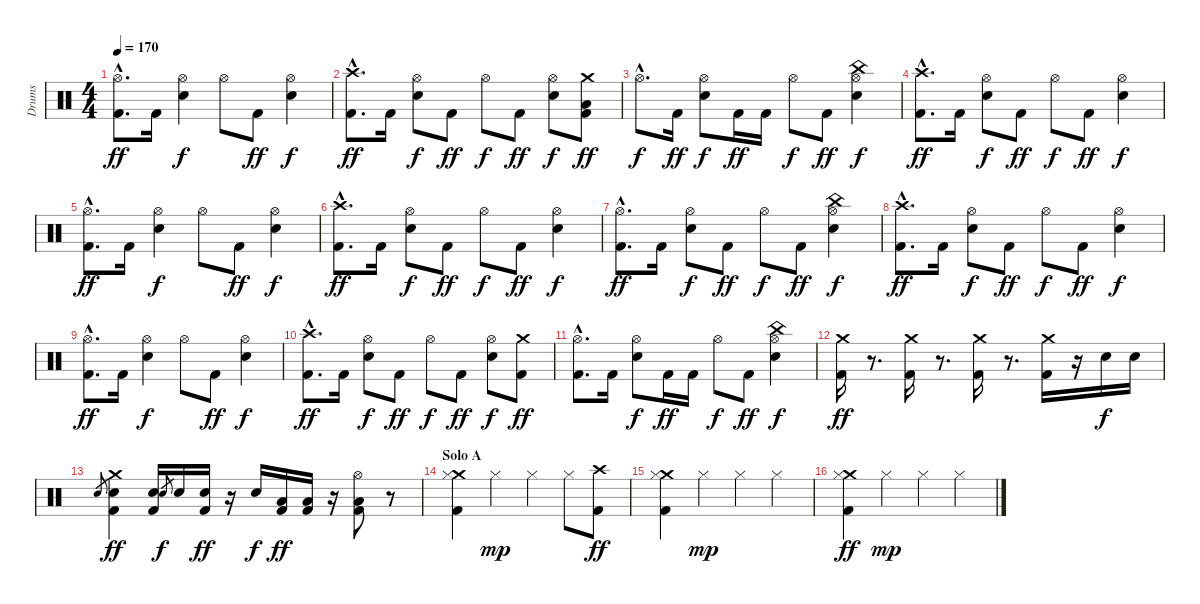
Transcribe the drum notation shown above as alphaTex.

\track ("Drums" "Drums") {instrument percussion}
\staff {score}
\articulation defaults
\ts (4 4)
\tempo 170
\clef neutral
\ks c
("Hi-Hat (open)"{hac} "Kick (hit) 2"{hac}).8{d dy ff} "Kick (hit) 2".16 ("Hi-Hat (open)" "Snare (hit) 2").4{dy f} "Hi-Hat (open)".8 "Kick (hit) 2".8{dy ff} ("Hi-Hat (open)" "Snare (hit) 2").4{dy f} |
("Crash high (hit)"{hac} "Kick (hit) 2"{hac}).8{d dy ff} "Kick (hit) 2".16 ("Hi-Hat (open)" "Snare (hit) 2").8{dy f} "Kick (hit) 2".8{dy ff} "Hi-Hat (open)".8{dy f} "Kick (hit) 2".8{dy ff} ("Hi-Hat (open)" "Snare (hit) 2").8{dy f} ("Crash medium (hit)" "Low Floor Tom (hit)" "Kick (hit) 2").8{dy ff} |
"Hi-Hat (open)"{hac}.8{d dy f} "Kick (hit) 2".16{dy ff} ("Hi-Hat (open)" "Snare (hit) 2").8{dy f} "Kick (hit) 2".16{dy ff} "Kick (hit) 2".16 "Hi-Hat (open)".8{dy f} "Kick (hit) 2".8{dy ff} ("China (hit)" "Hi-Hat (open)" "Snare (hit) 2").4{dy f} |
("Crash high (hit)"{hac} "Kick (hit) 2"{hac}).8{d dy ff} "Kick (hit) 2".16 ("Hi-Hat (open)" "Snare (hit) 2").8{dy f} "Kick (hit) 2".8{dy ff} "Hi-Hat (open)".8{dy f} "Kick (hit) 2".8{dy ff} ("Hi-Hat (open)" "Snare (hit) 2").4{dy f} |
("Hi-Hat (open)"{hac} "Kick (hit) 2"{hac}).8{d dy ff} "Kick (hit) 2".16 ("Hi-Hat (open)" "Snare (hit) 2").4{dy f} "Hi-Hat (open)".8 "Kick (hit) 2".8{dy ff} ("Hi-Hat (open)" "Snare (hit) 2").4{dy f} |
("Crash high (hit)"{hac} "Kick (hit) 2"{hac}).8{d dy ff} "Kick (hit) 2".16 ("Hi-Hat (open)" "Snare (hit) 2").8{dy f} "Kick (hit) 2".8{dy ff} "Hi-Hat (open)".8{dy f} "Kick (hit) 2".8{dy ff} ("Hi-Hat (open)" "Snare (hit) 2").4{dy f} |
("Hi-Hat (open)"{hac} "Kick (hit) 2"{hac}).8{d dy ff} "Kick (hit) 2".16 ("Hi-Hat (open)" "Snare (hit) 2").8{dy f} "Kick (hit) 2".8{dy ff} "Hi-Hat (open)".8{dy f} "Kick (hit) 2".8{dy ff} ("China (hit)" "Hi-Hat (open)" "Snare (hit) 2").4{dy f} |
("Crash high (hit)"{hac} "Kick (hit) 2"{hac}).8{d dy ff} "Kick (hit) 2".16 ("Hi-Hat (open)" "Snare (hit) 2").8{dy f} "Kick (hit) 2".8{dy ff} "Hi-Hat (open)".8{dy f} "Kick (hit) 2".8{dy ff} ("Hi-Hat (open)" "Snare (hit) 2").4{dy f} |
("Hi-Hat (open)"{hac} "Kick (hit) 2"{hac}).8{d dy ff} "Kick (hit) 2".16 ("Hi-Hat (open)" "Snare (hit) 2").4{dy f} "Hi-Hat (open)".8 "Kick (hit) 2".8{dy ff} ("Hi-Hat (open)" "Snare (hit) 2").4{dy f} |
("Crash high (hit)"{hac} "Kick (hit) 2"{hac}).8{d dy ff} "Kick (hit) 2".16 ("Hi-Hat (open)" "Snare (hit) 2").8{dy f} "Kick (hit) 2".8{dy ff} "Hi-Hat (open)".8{dy f} "Kick (hit) 2".8{dy ff} ("Hi-Hat (open)" "Snare (hit) 2").8{dy f} ("Crash medium (hit)" "Kick (hit) 2").8{dy ff} |
("Hi-Hat (open)"{hac} "Kick (hit) 2"{hac}).8{d} "Kick (hit) 2".16 ("Hi-Hat (open)" "Snare (hit) 2").8{dy f} "Kick (hit) 2".16{dy ff} "Kick (hit) 2".16 "Hi-Hat (open)".8{dy f} "Kick (hit) 2".8{dy ff} ("China (hit)" "Hi-Hat (open)" "Snare (hit) 2").4{dy f} |
("Crash medium (hit)" "Kick (hit) 2").16{dy ff} r.8{d} ("Crash medium (hit)" "Kick (hit) 2").16 r.8{d} ("Crash medium (hit)" "Kick (hit) 2").16 r.8{d} ("Crash medium (hit)" "Kick (hit) 2").16 r.16 "Snare (hit) 2".16{dy f} "Snare (hit) 2".16 |
"Snare (hit) 2".8{gr} ("Crash medium (hit)" "Snare (hit) 2" "Kick (hit) 2").4{dy ff} ("Snare (hit) 2" "Kick (hit) 2").16 "Snare (hit) 2".8{gr dy f} "Snare (hit) 2".16 ("Snare (hit) 2" "Kick (hit) 2").16{dy ff} r.16 "Snare (hit) 2".16{dy f} ("Low Floor Tom (hit)" "Kick (hit) 2").16{dy ff} ("Low Floor Tom (hit)" "Kick (hit) 2").16 r.16 ("Hi-Hat (open)" "Low Floor Tom (hit)" "Kick (hit) 2").8 r.8 |
\section ("" "Solo A")
("Crash medium (hit)" "Hi-Hat (closed)" "Kick (hit) 2").4 "Hi-Hat (closed)".4{dy mp} "Hi-Hat (closed)".4 "Hi-Hat (closed)".8 ("Crash high (hit)" "Kick (hit) 2").8{dy ff} |
("Crash medium (hit)" "Hi-Hat (closed)" "Kick (hit) 2").4 "Hi-Hat (closed)".4{dy mp} "Hi-Hat (closed)".4 "Hi-Hat (closed)".4 |
("Crash medium (hit)" "Hi-Hat (closed)" "Kick (hit) 2").4{dy ff} "Hi-Hat (closed)".4{dy mp} "Hi-Hat (closed)".4 "Hi-Hat (closed)".4
